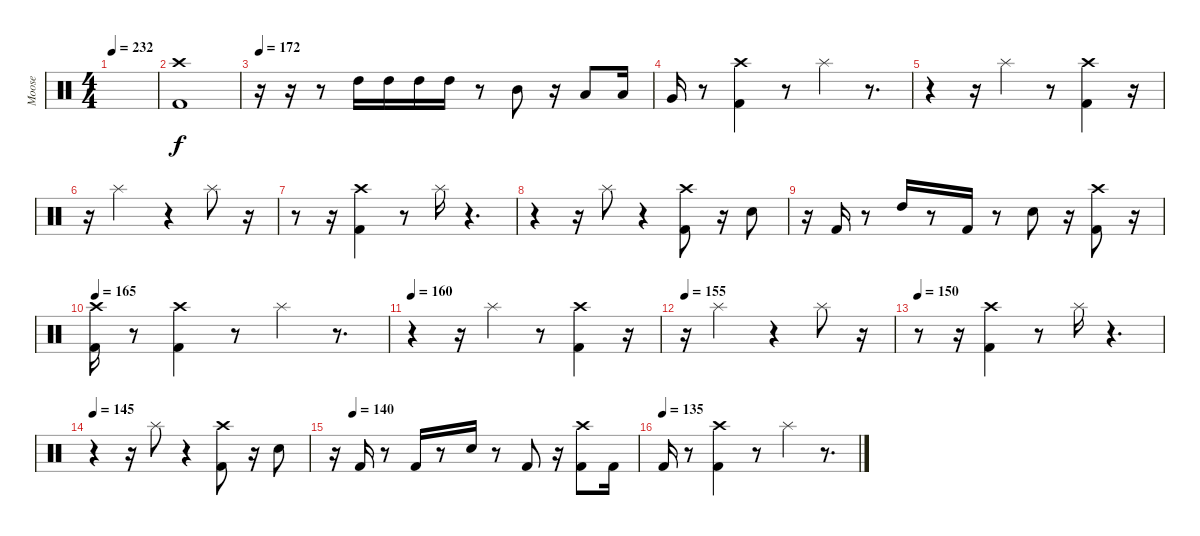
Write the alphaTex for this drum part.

\track ("Moose" "Moose") {instrument percussion}
\staff {score}
\articulation defaults
\ts (4 4)
\tempo 232
\clef neutral
\ks c
|
("Crash high (hit)" "Kick (hit) 2").1 |
\tempo 172
r.16 r.16 r.8 "High Tom (hit)".16 "High Tom (hit)".16 "High Tom (hit)".16 "High Tom (hit)".16 r.8 "Mid Tom (hit)".8 r.16 "Low Tom (hit)".8 "Low Tom (hit)".16 |
"Very Low Tom (hit)".16 r.8 ("Crash high (hit)" "Kick (hit) 2").4 r.8 "Splash (hit)".4 r.8{d} |
r.4 r.16 "Splash (hit)".4 r.8 ("Crash high (hit)" "Kick (hit) 2").4 r.16 |
r.16 "Splash (hit)".2 r.4 "Splash (hit)".8 r.16 |
r.8 r.16 ("Crash high (hit)" "Kick (hit) 2").4 r.8 "Splash (hit)".16 r.4{d} |
r.4 r.16 "Splash (hit)".8 r.4 ("Crash high (hit)" "Kick (hit) 2").8 r.16 "Electric Snare (hit)".8 |
r.16 "Kick (hit) 2".16 r.8 "High Tom (hit)".16 r.8 "Kick (hit) 2".16 r.8 "Electric Snare (hit)".8 r.16 ("Crash high (hit)" "Kick (hit) 2").8 r.16 |
\tempo 165
("Crash high (hit)" "Kick (hit) 2").16 r.8 ("Crash high (hit)" "Kick (hit) 2").4 r.8 "Splash (hit)".4 r.8{d} |
\tempo 160
r.4 r.16 "Splash (hit)".4 r.8 ("Crash high (hit)" "Kick (hit) 2").4 r.16 |
\tempo 155
r.16 "Splash (hit)".2 r.4 "Splash (hit)".8 r.16 |
\tempo 150
r.8 r.16 ("Crash high (hit)" "Kick (hit) 2").4 r.8 "Splash (hit)".16 r.4{d} |
\tempo 145
r.4 r.16 "Splash (hit)".8 r.4 ("Crash high (hit)" "Kick (hit) 2").8 r.16 "Electric Snare (hit)".8 |
\tempo (140 0.0625)
r.16 "Kick (hit) 2".16 r.8 "Kick (hit) 2".16 r.8 "Electric Snare (hit)".16 r.8 "Kick (hit) 2".8 r.16 ("Crash high (hit)" "Kick (hit) 2").8 "Kick (hit) 2".16 |
\tempo (135)
"Kick (hit) 2".16 r.8 ("Crash high (hit)" "Kick (hit) 2").4 r.8 "Splash (hit)".4 r.8{d}
